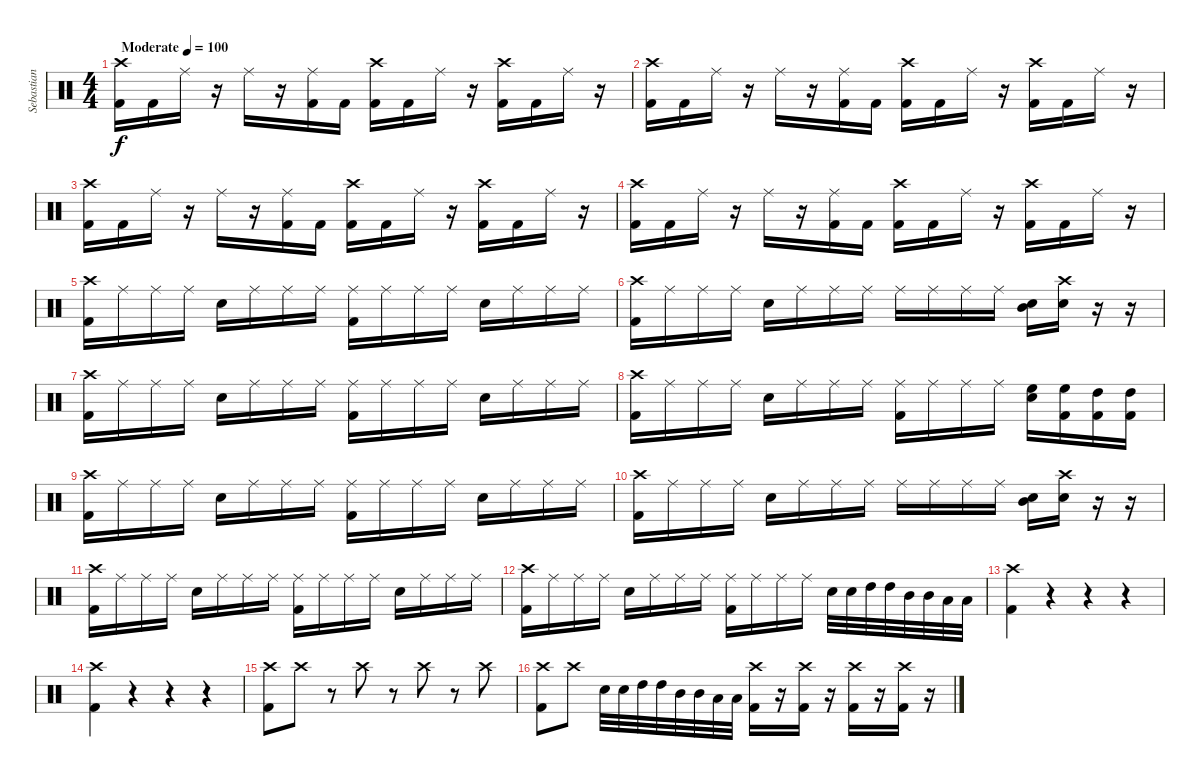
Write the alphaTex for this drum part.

\track ("Sebastian Heldt" "Sebastian ") {instrument percussion bank 177}
\staff {score}
\articulation defaults
\ts (4 4)
\tempo (100 "Moderate")
\clef neutral
\ks c
("Crash high (hit)" "Kick (hit) 2").16{dy f} "Kick (hit) 2".16 "Ride (middle)".16 r.16 "Ride (middle)".16 r.16 ("Ride (middle)" "Kick (hit) 2").16 "Kick (hit) 2".16 ("Crash high (hit)" "Kick (hit) 2").16 "Kick (hit) 2".16 "Ride (middle)".16 r.16 ("Crash high (hit)" "Kick (hit) 2").16 "Kick (hit) 2".16 "Ride (middle)".16 r.16 |
("Crash high (hit)" "Kick (hit) 2").16 "Kick (hit) 2".16 "Ride (middle)".16 r.16 "Ride (middle)".16 r.16 ("Ride (middle)" "Kick (hit) 2").16 "Kick (hit) 2".16 ("Crash high (hit)" "Kick (hit) 2").16 "Kick (hit) 2".16 "Ride (middle)".16 r.16 ("Crash high (hit)" "Kick (hit) 2").16 "Kick (hit) 2".16 "Ride (middle)".16 r.16 |
("Crash high (hit)" "Kick (hit) 2").16 "Kick (hit) 2".16 "Ride (middle)".16 r.16 "Ride (middle)".16 r.16 ("Ride (middle)" "Kick (hit) 2").16 "Kick (hit) 2".16 ("Crash high (hit)" "Kick (hit) 2").16 "Kick (hit) 2".16 "Ride (middle)".16 r.16 ("Crash high (hit)" "Kick (hit) 2").16 "Kick (hit) 2".16 "Ride (middle)".16 r.16 |
("Crash high (hit)" "Kick (hit) 2").16 "Kick (hit) 2".16 "Ride (middle)".16 r.16 "Ride (middle)".16 r.16 ("Ride (middle)" "Kick (hit) 2").16 "Kick (hit) 2".16 ("Crash high (hit)" "Kick (hit) 2").16 "Kick (hit) 2".16 "Ride (middle)".16 r.16 ("Crash high (hit)" "Kick (hit) 2").16 "Kick (hit) 2".16 "Ride (middle)".16 r.16 |
("Crash high (hit)" "Kick (hit) 2").16 "Ride (middle)".16 "Ride (middle)".16 "Ride (middle)".16 "Snare (hit) 2".16 "Ride (middle)".16 "Ride (middle)".16 "Ride (middle)".16 ("Ride (middle)" "Kick (hit) 2").16 "Ride (middle)".16 "Ride (middle)".16 "Ride (middle)".16 "Snare (hit) 2".16 "Ride (middle)".16 "Ride (middle)".16 "Ride (middle)".16 |
("Crash high (hit)" "Kick (hit) 2").16 "Ride (middle)".16 "Ride (middle)".16 "Ride (middle)".16 "Snare (hit) 2".16 "Ride (middle)".16 "Ride (middle)".16 "Ride (middle)".16 "Ride (middle)".16 "Ride (middle)".16 "Ride (middle)".16 "Ride (middle)".16 ("Mid Tom (hit)" "Snare (hit) 2").16 ("Crash high (hit)"{pm} "Snare (hit) 2").16 r.16 r.16 |
("Crash high (hit)" "Kick (hit) 2").16 "Ride (middle)".16 "Ride (middle)".16 "Ride (middle)".16 "Snare (hit) 2".16 "Ride (middle)".16 "Ride (middle)".16 "Ride (middle)".16 ("Ride (middle)" "Kick (hit) 2").16 "Ride (middle)".16 "Ride (middle)".16 "Ride (middle)".16 "Snare (hit) 2".16 "Ride (middle)".16 "Ride (middle)".16 "Ride (middle)".16 |
("Crash high (hit)" "Kick (hit) 2").16 "Ride (middle)".16 "Ride (middle)".16 "Ride (middle)".16 "Snare (hit) 2".16 "Ride (middle)".16 "Ride (middle)".16 "Ride (middle)".16 ("Ride (middle)" "Kick (hit) 2").16 "Ride (middle)".16 "Ride (middle)".16 "Ride (middle)".16 ("High Floor Tom (hit)" "Snare (hit) 2").16 ("High Floor Tom (hit)" "Kick (hit) 2").16 ("High Tom (hit)" "Kick (hit) 2").16 ("High Tom (hit)" "Kick (hit) 2").16 |
("Crash high (hit)" "Kick (hit) 2").16 "Ride (middle)".16 "Ride (middle)".16 "Ride (middle)".16 "Snare (hit) 2".16 "Ride (middle)".16 "Ride (middle)".16 "Ride (middle)".16 ("Ride (middle)" "Kick (hit) 2").16 "Ride (middle)".16 "Ride (middle)".16 "Ride (middle)".16 "Snare (hit) 2".16 "Ride (middle)".16 "Ride (middle)".16 "Ride (middle)".16 |
("Crash high (hit)" "Kick (hit) 2").16 "Ride (middle)".16 "Ride (middle)".16 "Ride (middle)".16 "Snare (hit) 2".16 "Ride (middle)".16 "Ride (middle)".16 "Ride (middle)".16 "Ride (middle)".16 "Ride (middle)".16 "Ride (middle)".16 "Ride (middle)".16 ("Mid Tom (hit)" "Snare (hit) 2").16 ("Crash high (hit)"{pm} "Snare (hit) 2").16 r.16 r.16 |
("Crash high (hit)" "Kick (hit) 2").16 "Ride (middle)".16 "Ride (middle)".16 "Ride (middle)".16 "Snare (hit) 2".16 "Ride (middle)".16 "Ride (middle)".16 "Ride (middle)".16 ("Ride (middle)" "Kick (hit) 2").16 "Ride (middle)".16 "Ride (middle)".16 "Ride (middle)".16 "Snare (hit) 2".16 "Ride (middle)".16 "Ride (middle)".16 "Ride (middle)".16 |
("Crash high (hit)" "Kick (hit) 2").16 "Ride (middle)".16 "Ride (middle)".16 "Ride (middle)".16 "Snare (hit) 2".16 "Ride (middle)".16 "Ride (middle)".16 "Ride (middle)".16 ("Ride (middle)" "Kick (hit) 2").16 "Ride (middle)".16 "Ride (middle)".16 "Ride (middle)".16 "Snare (hit) 2".32 "Snare (hit) 2".32 "High Tom (hit)".32 "High Tom (hit)".32 "Mid Tom (hit)".32 "Mid Tom (hit)".32 "Low Tom (hit)".32 "Low Tom (hit)".32 |
("Kick (hit) 2" "Crash high (hit)").4 r.4 r.4 r.4 |
("Kick (hit) 2" "Crash high (hit)").4 r.4 r.4 r.4 |
("Kick (hit) 2" "Crash high (hit)").8 "Crash high (hit)".8 r.8 "Crash high (hit)".8 r.8 "Crash high (hit)".8 r.8 "Crash high (hit)".8 |
("Kick (hit) 2" "Crash high (hit)").8 "Crash high (hit)".8 "Snare (hit) 2".32 "Snare (hit) 2".32 "High Tom (hit)".32 "High Tom (hit)".32 "Mid Tom (hit)".32 "Mid Tom (hit)".32 "Low Tom (hit)".32 "Low Tom (hit)".32 ("Crash high (hit)"{pm} "Kick (hit) 2").16 r.16 ("Crash high (hit)"{pm} "Kick (hit) 2").16 r.16 ("Crash high (hit)"{pm} "Kick (hit) 2").16 r.16 ("Crash high (hit)"{pm} "Kick (hit) 2").16 r.16
